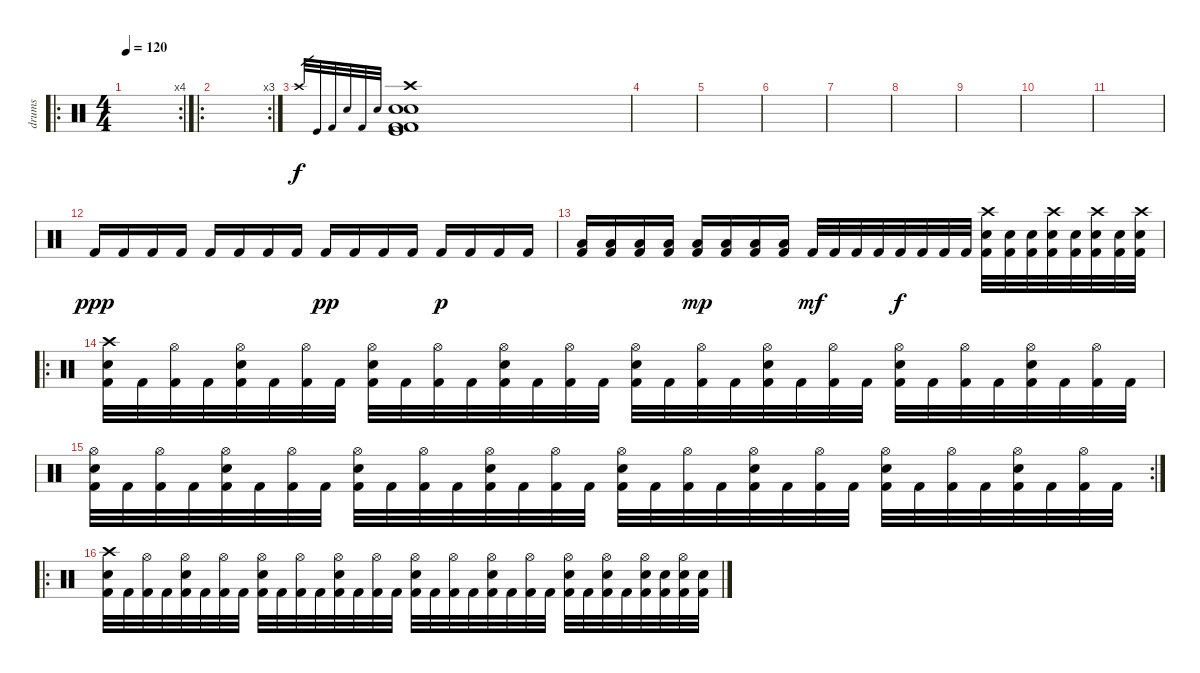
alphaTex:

\track ("drums" "drums") {instrument percussion}
\staff {score}
\articulation defaults
\ro
\rc 4
\ts (4 4)
\tempo 120
\clef neutral
\ks c
|
\ro
\rc 3
|
"Crash high (hit)".32{gr} "Kick (hit)".32{gr} "Kick (hit) 2".32{gr} "Electric Snare (hit)".32{gr} "Kick (hit) 2".32{gr} "Electric Snare (hit)".32{gr} ("Crash high (hit)" "Kick (hit)" "Kick (hit) 2" "Electric Snare (hit)" "Kick (hit) 2" "Electric Snare (hit)").1 |
|
|
|
|
|
|
|
|
"Kick (hit) 2".16{dy ppp} "Kick (hit) 2".16 "Kick (hit) 2".16 "Kick (hit) 2".16 "Kick (hit) 2".16 "Kick (hit) 2".16 "Kick (hit) 2".16 "Kick (hit) 2".16 "Kick (hit) 2".16{dy pp} "Kick (hit) 2".16 "Kick (hit) 2".16 "Kick (hit) 2".16 "Kick (hit) 2".16{dy p} "Kick (hit) 2".16 "Kick (hit) 2".16 "Kick (hit) 2".16 |
("Low Floor Tom (hit)" "Kick (hit) 2").16 ("Low Floor Tom (hit)" "Kick (hit) 2").16 ("Low Floor Tom (hit)" "Kick (hit) 2").16 ("Low Floor Tom (hit)" "Kick (hit) 2").16 ("Low Floor Tom (hit)" "Kick (hit) 2").16{dy mp} ("Low Floor Tom (hit)" "Kick (hit) 2").16 ("Low Floor Tom (hit)" "Kick (hit) 2").16 ("Low Floor Tom (hit)" "Kick (hit) 2").16 "Kick (hit) 2".32{dy mf} "Kick (hit) 2".32 "Kick (hit) 2".32 "Kick (hit) 2".32 "Kick (hit) 2".32{dy f} "Kick (hit) 2".32 "Kick (hit) 2".32 "Kick (hit) 2".32 ("Crash high (hit)" "Kick (hit) 2" "Electric Snare (hit)").32 ("Kick (hit) 2" "Electric Snare (hit)").32 ("Kick (hit) 2" "Electric Snare (hit)").32 ("Crash high (hit)" "Kick (hit) 2" "Electric Snare (hit)").32 ("Kick (hit) 2" "Electric Snare (hit)").32 ("Crash high (hit)" "Kick (hit) 2" "Electric Snare (hit)").32 ("Kick (hit) 2" "Electric Snare (hit)").32 ("Crash high (hit)" "Kick (hit) 2" "Electric Snare (hit)").32 |
\ro
("Crash high (hit)" "Electric Snare (hit)" "Kick (hit) 2").32 "Kick (hit) 2".32 ("Hi-Hat (open)" "Kick (hit) 2").32 "Kick (hit) 2".32 ("Hi-Hat (open)" "Electric Snare (hit)" "Kick (hit) 2").32 "Kick (hit) 2".32 ("Hi-Hat (open)" "Kick (hit) 2").32 "Kick (hit) 2".32 ("Hi-Hat (open)" "Electric Snare (hit)" "Kick (hit) 2").32 "Kick (hit) 2".32 ("Hi-Hat (open)" "Kick (hit) 2").32 "Kick (hit) 2".32 ("Hi-Hat (open)" "Electric Snare (hit)" "Kick (hit) 2").32 "Kick (hit) 2".32 ("Hi-Hat (open)" "Kick (hit) 2").32 "Kick (hit) 2".32 ("Hi-Hat (open)" "Electric Snare (hit)" "Kick (hit) 2").32 "Kick (hit) 2".32 ("Hi-Hat (open)" "Kick (hit) 2").32 "Kick (hit) 2".32 ("Hi-Hat (open)" "Electric Snare (hit)" "Kick (hit) 2").32 "Kick (hit) 2".32 ("Hi-Hat (open)" "Kick (hit) 2").32 "Kick (hit) 2".32 ("Hi-Hat (open)" "Electric Snare (hit)" "Kick (hit) 2").32 "Kick (hit) 2".32 ("Hi-Hat (open)" "Kick (hit) 2").32 "Kick (hit) 2".32 ("Hi-Hat (open)" "Electric Snare (hit)" "Kick (hit) 2").32 "Kick (hit) 2".32 ("Hi-Hat (open)" "Kick (hit) 2").32 "Kick (hit) 2".32 |
\rc 2
("Hi-Hat (open)" "Electric Snare (hit)" "Kick (hit) 2").32 "Kick (hit) 2".32 ("Hi-Hat (open)" "Kick (hit) 2").32 "Kick (hit) 2".32 ("Hi-Hat (open)" "Electric Snare (hit)" "Kick (hit) 2").32 "Kick (hit) 2".32 ("Hi-Hat (open)" "Kick (hit) 2").32 "Kick (hit) 2".32 ("Hi-Hat (open)" "Electric Snare (hit)" "Kick (hit) 2").32 "Kick (hit) 2".32 ("Hi-Hat (open)" "Kick (hit) 2").32 "Kick (hit) 2".32 ("Hi-Hat (open)" "Electric Snare (hit)" "Kick (hit) 2").32 "Kick (hit) 2".32 ("Hi-Hat (open)" "Kick (hit) 2").32 "Kick (hit) 2".32 ("Hi-Hat (open)" "Electric Snare (hit)" "Kick (hit) 2").32 "Kick (hit) 2".32 ("Hi-Hat (open)" "Kick (hit) 2").32 "Kick (hit) 2".32 ("Hi-Hat (open)" "Electric Snare (hit)" "Kick (hit) 2").32 "Kick (hit) 2".32 ("Hi-Hat (open)" "Kick (hit) 2").32 "Kick (hit) 2".32 ("Hi-Hat (open)" "Electric Snare (hit)" "Kick (hit) 2").32 "Kick (hit) 2".32 ("Hi-Hat (open)" "Kick (hit) 2").32 "Kick (hit) 2".32 ("Hi-Hat (open)" "Electric Snare (hit)" "Kick (hit) 2").32 "Kick (hit) 2".32 ("Hi-Hat (open)" "Kick (hit) 2").32 "Kick (hit) 2".32 |
\ro
("Crash high (hit)" "Electric Snare (hit)" "Kick (hit) 2").32 "Kick (hit) 2".32 ("Hi-Hat (open)" "Kick (hit) 2").32 "Kick (hit) 2".32 ("Hi-Hat (open)" "Electric Snare (hit)" "Kick (hit) 2").32 "Kick (hit) 2".32 ("Hi-Hat (open)" "Kick (hit) 2").32 "Kick (hit) 2".32 ("Hi-Hat (open)" "Electric Snare (hit)" "Kick (hit) 2").32 "Kick (hit) 2".32 ("Hi-Hat (open)" "Kick (hit) 2").32 "Kick (hit) 2".32 ("Hi-Hat (open)" "Electric Snare (hit)" "Kick (hit) 2").32 "Kick (hit) 2".32 ("Hi-Hat (open)" "Kick (hit) 2").32 "Kick (hit) 2".32 ("Hi-Hat (open)" "Electric Snare (hit)" "Kick (hit) 2").32 "Kick (hit) 2".32 ("Hi-Hat (open)" "Kick (hit) 2").32 "Kick (hit) 2".32 ("Hi-Hat (open)" "Electric Snare (hit)" "Kick (hit) 2").32 "Kick (hit) 2".32 ("Hi-Hat (open)" "Kick (hit) 2").32 "Kick (hit) 2".32 ("Hi-Hat (open)" "Electric Snare (hit)" "Kick (hit) 2").32 "Kick (hit) 2".32 ("Hi-Hat (open)" "Electric Snare (hit)" "Kick (hit) 2").32 "Kick (hit) 2".32 ("Hi-Hat (open)" "Electric Snare (hit)" "Kick (hit) 2").32 ("Electric Snare (hit)" "Kick (hit) 2").32 ("Hi-Hat (open)" "Electric Snare (hit)" "Kick (hit) 2").32 ("Electric Snare (hit)" "Kick (hit) 2").32
